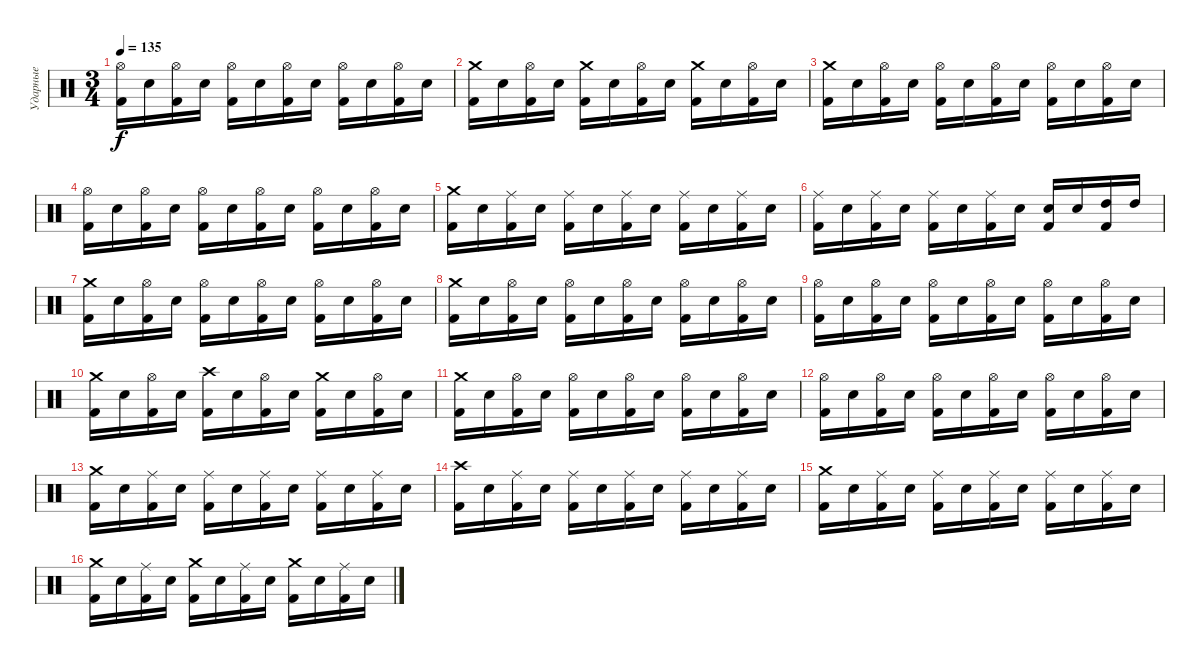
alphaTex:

\track ("Ударные" "Ударные") {instrument percussion}
\staff {score}
\articulation defaults
\ts (3 4)
\tempo 135
\clef neutral
\ks c
("Hi-Hat (open)" "Kick (hit) 2").16{dy f} "Electric Snare (hit)".16 ("Hi-Hat (open)" "Kick (hit) 2").16 "Electric Snare (hit)".16 ("Hi-Hat (open)" "Kick (hit) 2").16 "Electric Snare (hit)".16 ("Hi-Hat (open)" "Kick (hit) 2").16 "Electric Snare (hit)".16 ("Hi-Hat (open)" "Kick (hit) 2").16 "Electric Snare (hit)".16 ("Hi-Hat (open)" "Kick (hit) 2").16 "Electric Snare (hit)".16 |
("Crash medium (hit)" "Kick (hit) 2").16 "Electric Snare (hit)".16 ("Hi-Hat (open)" "Kick (hit) 2").16 "Electric Snare (hit)".16 ("Crash medium (hit)" "Kick (hit) 2").16 "Electric Snare (hit)".16 ("Hi-Hat (open)" "Kick (hit) 2").16 "Electric Snare (hit)".16 ("Crash medium (hit)" "Kick (hit) 2").16 "Electric Snare (hit)".16 ("Hi-Hat (open)" "Kick (hit) 2").16 "Electric Snare (hit)".16 |
("Crash medium (hit)" "Kick (hit) 2").16 "Electric Snare (hit)".16 ("Hi-Hat (open)" "Kick (hit) 2").16 "Electric Snare (hit)".16 ("Hi-Hat (open)" "Kick (hit) 2").16 "Electric Snare (hit)".16 ("Hi-Hat (open)" "Kick (hit) 2").16 "Electric Snare (hit)".16 ("Hi-Hat (open)" "Kick (hit) 2").16 "Electric Snare (hit)".16 ("Hi-Hat (open)" "Kick (hit) 2").16 "Electric Snare (hit)".16 |
("Hi-Hat (open)" "Kick (hit) 2").16 "Electric Snare (hit)".16 ("Hi-Hat (open)" "Kick (hit) 2").16 "Electric Snare (hit)".16 ("Hi-Hat (open)" "Kick (hit) 2").16 "Electric Snare (hit)".16 ("Hi-Hat (open)" "Kick (hit) 2").16 "Electric Snare (hit)".16 ("Hi-Hat (open)" "Kick (hit) 2").16 "Electric Snare (hit)".16 ("Hi-Hat (open)" "Kick (hit) 2").16 "Electric Snare (hit)".16 |
("Crash medium (hit)" "Kick (hit) 2").16 "Electric Snare (hit)".16 ("Ride (middle)" "Kick (hit) 2").16 "Electric Snare (hit)".16 ("Ride (middle)" "Kick (hit) 2").16 "Electric Snare (hit)".16 ("Ride (middle)" "Kick (hit) 2").16 "Electric Snare (hit)".16 ("Ride (middle)" "Kick (hit) 2").16 "Electric Snare (hit)".16 ("Ride (middle)" "Kick (hit) 2").16 "Electric Snare (hit)".16 |
("Ride (middle)" "Kick (hit) 2").16 "Electric Snare (hit)".16 ("Ride (middle)" "Kick (hit) 2").16 "Electric Snare (hit)".16 ("Ride (middle)" "Kick (hit) 2").16 "Electric Snare (hit)".16 ("Ride (middle)" "Kick (hit) 2").16 "Electric Snare (hit)".16 ("Electric Snare (hit)" "Kick (hit) 2").16 "Electric Snare (hit)".16 ("High Tom (hit)" "Kick (hit) 2").16 "High Tom (hit)".16 |
("Crash medium (hit)" "Kick (hit) 2").16 "Electric Snare (hit)".16 ("Hi-Hat (open)" "Kick (hit) 2").16 "Electric Snare (hit)".16 ("Hi-Hat (open)" "Kick (hit) 2").16 "Electric Snare (hit)".16 ("Hi-Hat (open)" "Kick (hit) 2").16 "Electric Snare (hit)".16 ("Hi-Hat (open)" "Kick (hit) 2").16 "Electric Snare (hit)".16 ("Hi-Hat (open)" "Kick (hit) 2").16 "Electric Snare (hit)".16 |
("Crash medium (hit)" "Kick (hit) 2").16 "Electric Snare (hit)".16 ("Hi-Hat (open)" "Kick (hit) 2").16 "Electric Snare (hit)".16 ("Hi-Hat (open)" "Kick (hit) 2").16 "Electric Snare (hit)".16 ("Hi-Hat (open)" "Kick (hit) 2").16 "Electric Snare (hit)".16 ("Hi-Hat (open)" "Kick (hit) 2").16 "Electric Snare (hit)".16 ("Hi-Hat (open)" "Kick (hit) 2").16 "Electric Snare (hit)".16 |
("Hi-Hat (open)" "Kick (hit) 2").16 "Electric Snare (hit)".16 ("Hi-Hat (open)" "Kick (hit) 2").16 "Electric Snare (hit)".16 ("Hi-Hat (open)" "Kick (hit) 2").16 "Electric Snare (hit)".16 ("Hi-Hat (open)" "Kick (hit) 2").16 "Electric Snare (hit)".16 ("Hi-Hat (open)" "Kick (hit) 2").16 "Electric Snare (hit)".16 ("Hi-Hat (open)" "Kick (hit) 2").16 "Electric Snare (hit)".16 |
("Crash medium (hit)" "Kick (hit) 2").16 "Electric Snare (hit)".16 ("Hi-Hat (open)" "Kick (hit) 2").16 "Electric Snare (hit)".16 ("Crash high (hit)" "Kick (hit) 2").16 "Electric Snare (hit)".16 ("Hi-Hat (open)" "Kick (hit) 2").16 "Electric Snare (hit)".16 ("Crash medium (hit)" "Kick (hit) 2").16 "Electric Snare (hit)".16 ("Hi-Hat (open)" "Kick (hit) 2").16 "Electric Snare (hit)".16 |
("Crash medium (hit)" "Kick (hit) 2").16 "Electric Snare (hit)".16 ("Hi-Hat (open)" "Kick (hit) 2").16 "Electric Snare (hit)".16 ("Hi-Hat (open)" "Kick (hit) 2").16 "Electric Snare (hit)".16 ("Hi-Hat (open)" "Kick (hit) 2").16 "Electric Snare (hit)".16 ("Hi-Hat (open)" "Kick (hit) 2").16 "Electric Snare (hit)".16 ("Hi-Hat (open)" "Kick (hit) 2").16 "Electric Snare (hit)".16 |
("Hi-Hat (open)" "Kick (hit) 2").16 "Electric Snare (hit)".16 ("Hi-Hat (open)" "Kick (hit) 2").16 "Electric Snare (hit)".16 ("Hi-Hat (open)" "Kick (hit) 2").16 "Electric Snare (hit)".16 ("Hi-Hat (open)" "Kick (hit) 2").16 "Electric Snare (hit)".16 ("Hi-Hat (open)" "Kick (hit) 2").16 "Electric Snare (hit)".16 ("Hi-Hat (open)" "Kick (hit) 2").16 "Electric Snare (hit)".16 |
("Crash medium (hit)" "Kick (hit) 2").16 "Electric Snare (hit)".16 ("Ride (middle)" "Kick (hit) 2").16 "Electric Snare (hit)".16 ("Ride (middle)" "Kick (hit) 2").16 "Electric Snare (hit)".16 ("Ride (middle)" "Kick (hit) 2").16 "Electric Snare (hit)".16 ("Ride (middle)" "Kick (hit) 2").16 "Electric Snare (hit)".16 ("Ride (middle)" "Kick (hit) 2").16 "Electric Snare (hit)".16 |
("Crash high (hit)" "Kick (hit) 2").16 "Electric Snare (hit)".16 ("Ride (middle)" "Kick (hit) 2").16 "Electric Snare (hit)".16 ("Ride (middle)" "Kick (hit) 2").16 "Electric Snare (hit)".16 ("Ride (middle)" "Kick (hit) 2").16 "Electric Snare (hit)".16 ("Ride (middle)" "Kick (hit) 2").16 "Electric Snare (hit)".16 ("Ride (middle)" "Kick (hit) 2").16 "Electric Snare (hit)".16 |
("Crash medium (hit)" "Kick (hit) 2").16 "Electric Snare (hit)".16 ("Ride (middle)" "Kick (hit) 2").16 "Electric Snare (hit)".16 ("Ride (middle)" "Kick (hit) 2").16 "Electric Snare (hit)".16 ("Ride (middle)" "Kick (hit) 2").16 "Electric Snare (hit)".16 ("Ride (middle)" "Kick (hit) 2").16 "Electric Snare (hit)".16 ("Ride (middle)" "Kick (hit) 2").16 "Electric Snare (hit)".16 |
("Crash medium (hit)" "Kick (hit) 2").16 "Electric Snare (hit)".16 ("Ride (middle)" "Kick (hit) 2").16 "Electric Snare (hit)".16 ("Crash medium (hit)" "Kick (hit) 2").16 "Electric Snare (hit)".16 ("Ride (middle)" "Kick (hit) 2").16 "Electric Snare (hit)".16 ("Crash medium (hit)" "Kick (hit) 2").16 "Electric Snare (hit)".16 ("Ride (middle)" "Kick (hit) 2").16 "Electric Snare (hit)".16
